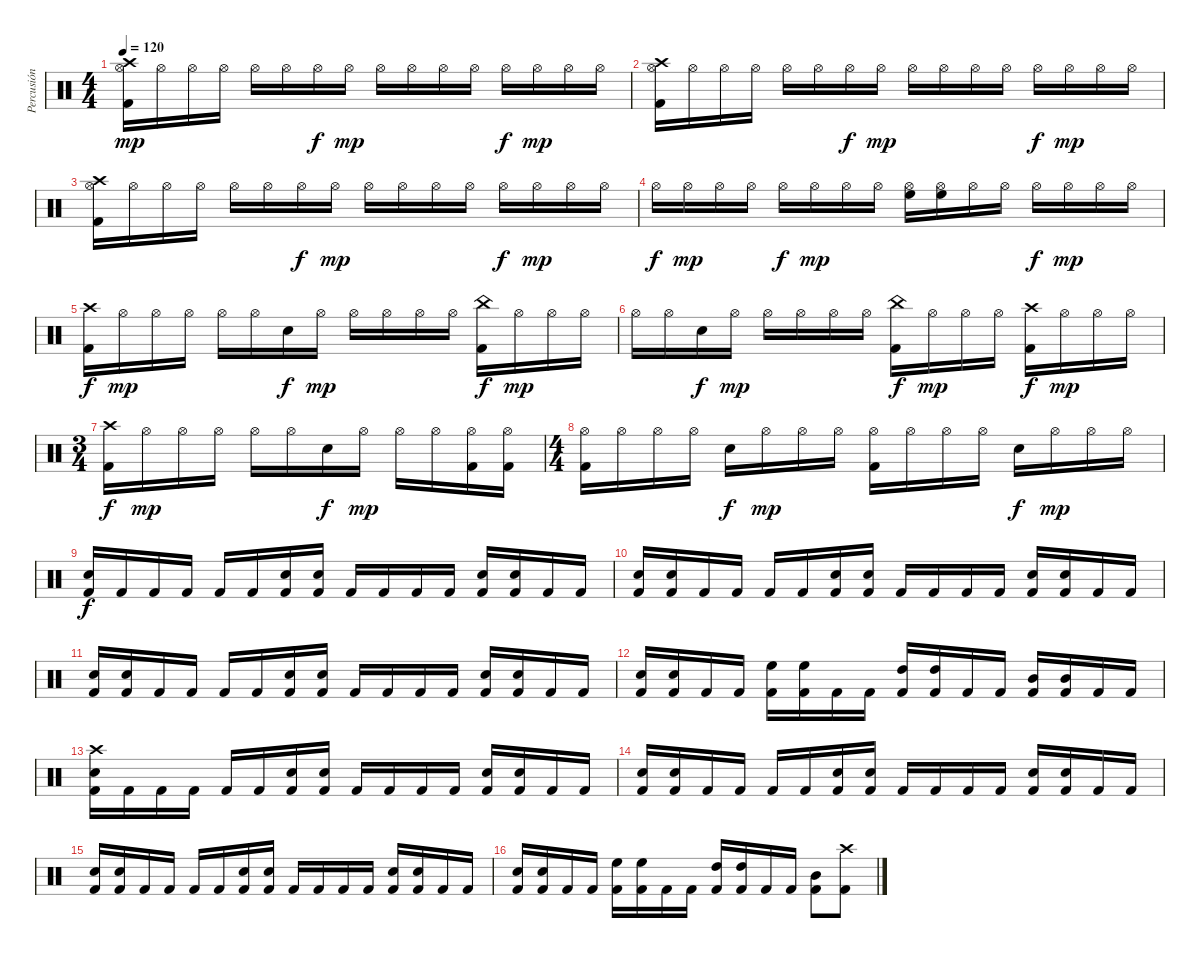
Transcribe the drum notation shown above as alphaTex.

\track ("Percusión" "Percusión") {instrument percussion}
\staff {score}
\articulation defaults
\ts (4 4)
\tempo 120
\clef neutral
\ks c
("Crash high (hit)" "Kick (hit) 2" "Hi-Hat (open)").16{dy mp} "Hi-Hat (open)".16 "Hi-Hat (open)".16 "Hi-Hat (open)".16 "Hi-Hat (open)".16 "Hi-Hat (open)".16 "Hi-Hat (open)".16{dy f} "Hi-Hat (open)".16{dy mp} "Hi-Hat (open)".16 "Hi-Hat (open)".16 "Hi-Hat (open)".16 "Hi-Hat (open)".16 "Hi-Hat (open)".16{dy f} "Hi-Hat (open)".16{dy mp} "Hi-Hat (open)".16 "Hi-Hat (open)".16 |
("Crash high (hit)" "Kick (hit) 2" "Hi-Hat (open)").16 "Hi-Hat (open)".16 "Hi-Hat (open)".16 "Hi-Hat (open)".16 "Hi-Hat (open)".16 "Hi-Hat (open)".16 "Hi-Hat (open)".16{dy f} "Hi-Hat (open)".16{dy mp} "Hi-Hat (open)".16 "Hi-Hat (open)".16 "Hi-Hat (open)".16 "Hi-Hat (open)".16 "Hi-Hat (open)".16{dy f} "Hi-Hat (open)".16{dy mp} "Hi-Hat (open)".16 "Hi-Hat (open)".16 |
("Hi-Hat (open)" "Crash high (hit)" "Kick (hit) 2").16 "Hi-Hat (open)".16 "Hi-Hat (open)".16 "Hi-Hat (open)".16 "Hi-Hat (open)".16 "Hi-Hat (open)".16 "Hi-Hat (open)".16{dy f} "Hi-Hat (open)".16{dy mp} "Hi-Hat (open)".16 "Hi-Hat (open)".16 "Hi-Hat (open)".16 "Hi-Hat (open)".16 "Hi-Hat (open)".16{dy f} "Hi-Hat (open)".16{dy mp} "Hi-Hat (open)".16 "Hi-Hat (open)".16 |
"Hi-Hat (open)".16{dy f} "Hi-Hat (open)".16{dy mp} "Hi-Hat (open)".16 "Hi-Hat (open)".16 "Hi-Hat (open)".16{dy f} "Hi-Hat (open)".16{dy mp} "Hi-Hat (open)".16 "Hi-Hat (open)".16 ("Hi-Hat (open)" "High Floor Tom (hit)").16 ("Hi-Hat (open)" "High Floor Tom (hit)").16 "Hi-Hat (open)".16 "Hi-Hat (open)".16 "Hi-Hat (open)".16{dy f} "Hi-Hat (open)".16{dy mp} "Hi-Hat (open)".16 "Hi-Hat (open)".16 |
("Crash high (hit)" "Kick (hit) 2").16{dy f} "Hi-Hat (open)".16{dy mp} "Hi-Hat (open)".16 "Hi-Hat (open)".16 "Hi-Hat (open)".16 "Hi-Hat (open)".16 "Electric Snare (hit)".16{dy f} "Hi-Hat (open)".16{dy mp} "Hi-Hat (open)".16 "Hi-Hat (open)".16 "Hi-Hat (open)".16 "Hi-Hat (open)".16 ("China (hit)" "Kick (hit) 2").16{dy f} "Hi-Hat (open)".16{dy mp} "Hi-Hat (open)".16 "Hi-Hat (open)".16 |
"Hi-Hat (open)".16 "Hi-Hat (open)".16 "Electric Snare (hit)".16{dy f} "Hi-Hat (open)".16{dy mp} "Hi-Hat (open)".16 "Hi-Hat (open)".16 "Hi-Hat (open)".16 "Hi-Hat (open)".16 ("China (hit)" "Kick (hit) 2").16{dy f} "Hi-Hat (open)".16{dy mp} "Hi-Hat (open)".16 "Hi-Hat (open)".16 ("Crash high (hit)" "Kick (hit) 2").16{dy f} "Hi-Hat (open)".16{dy mp} "Hi-Hat (open)".16 "Hi-Hat (open)".16 |
\ts (3 4)
("Kick (hit) 2" "Crash high (hit)").16{dy f} "Hi-Hat (open)".16{dy mp} "Hi-Hat (open)".16 "Hi-Hat (open)".16 "Hi-Hat (open)".16 "Hi-Hat (open)".16 "Electric Snare (hit)".16{dy f} "Hi-Hat (open)".16{dy mp} "Hi-Hat (open)".16 "Hi-Hat (open)".16 ("Kick (hit) 2" "Hi-Hat (open)").16 ("Kick (hit) 2" "Hi-Hat (open)").16 |
\ts (4 4)
("Kick (hit) 2" "Hi-Hat (open)").16 "Hi-Hat (open)".16 "Hi-Hat (open)".16 "Hi-Hat (open)".16 "Electric Snare (hit)".16{dy f} "Hi-Hat (open)".16{dy mp} "Hi-Hat (open)".16 "Hi-Hat (open)".16 ("Kick (hit) 2" "Hi-Hat (open)").16 "Hi-Hat (open)".16 "Hi-Hat (open)".16 "Hi-Hat (open)".16 "Electric Snare (hit)".16{dy f} "Hi-Hat (open)".16{dy mp} "Hi-Hat (open)".16 "Hi-Hat (open)".16 |
("Electric Snare (hit)" "Kick (hit) 2").16{dy f} "Kick (hit) 2".16 "Kick (hit) 2".16 "Kick (hit) 2".16 "Kick (hit) 2".16 "Kick (hit) 2".16 ("Kick (hit) 2" "Electric Snare (hit)").16 ("Kick (hit) 2" "Electric Snare (hit)").16 "Kick (hit) 2".16 "Kick (hit) 2".16 "Kick (hit) 2".16 "Kick (hit) 2".16 ("Kick (hit) 2" "Electric Snare (hit)").16 ("Kick (hit) 2" "Electric Snare (hit)").16 "Kick (hit) 2".16 "Kick (hit) 2".16 |
("Kick (hit) 2" "Electric Snare (hit)").16 ("Kick (hit) 2" "Electric Snare (hit)").16 "Kick (hit) 2".16 "Kick (hit) 2".16 "Kick (hit) 2".16 "Kick (hit) 2".16 ("Kick (hit) 2" "Electric Snare (hit)").16 ("Kick (hit) 2" "Electric Snare (hit)").16 "Kick (hit) 2".16 "Kick (hit) 2".16 "Kick (hit) 2".16 "Kick (hit) 2".16 ("Kick (hit) 2" "Electric Snare (hit)").16 ("Kick (hit) 2" "Electric Snare (hit)").16 "Kick (hit) 2".16 "Kick (hit) 2".16 |
("Kick (hit) 2" "Electric Snare (hit)").16 ("Kick (hit) 2" "Electric Snare (hit)").16 "Kick (hit) 2".16 "Kick (hit) 2".16 "Kick (hit) 2".16 "Kick (hit) 2".16 ("Kick (hit) 2" "Electric Snare (hit)").16 ("Kick (hit) 2" "Electric Snare (hit)").16 "Kick (hit) 2".16 "Kick (hit) 2".16 "Kick (hit) 2".16 "Kick (hit) 2".16 ("Kick (hit) 2" "Electric Snare (hit)").16 ("Kick (hit) 2" "Electric Snare (hit)").16 "Kick (hit) 2".16 "Kick (hit) 2".16 |
("Kick (hit) 2" "Electric Snare (hit)").16 ("Kick (hit) 2" "Electric Snare (hit)").16 "Kick (hit) 2".16 "Kick (hit) 2".16 ("Kick (hit) 2" "High Floor Tom (hit)").16 ("Kick (hit) 2" "High Floor Tom (hit)").16 "Kick (hit) 2".16 "Kick (hit) 2".16 ("Kick (hit) 2" "High Tom (hit)").16 ("Kick (hit) 2" "High Tom (hit)").16 "Kick (hit) 2".16 "Kick (hit) 2".16 ("Kick (hit) 2" "Mid Tom (hit)").16 ("Kick (hit) 2" "Mid Tom (hit)").16 "Kick (hit) 2".16 "Kick (hit) 2".16 |
("Kick (hit) 2" "Crash high (hit)" "Electric Snare (hit)").16 "Kick (hit) 2".16 "Kick (hit) 2".16 "Kick (hit) 2".16 "Kick (hit) 2".16 "Kick (hit) 2".16 ("Kick (hit) 2" "Electric Snare (hit)").16 ("Kick (hit) 2" "Electric Snare (hit)").16 "Kick (hit) 2".16 "Kick (hit) 2".16 "Kick (hit) 2".16 "Kick (hit) 2".16 ("Kick (hit) 2" "Electric Snare (hit)").16 ("Kick (hit) 2" "Electric Snare (hit)").16 "Kick (hit) 2".16 "Kick (hit) 2".16 |
("Kick (hit) 2" "Electric Snare (hit)").16 ("Kick (hit) 2" "Electric Snare (hit)").16 "Kick (hit) 2".16 "Kick (hit) 2".16 "Kick (hit) 2".16 "Kick (hit) 2".16 ("Kick (hit) 2" "Electric Snare (hit)").16 ("Kick (hit) 2" "Electric Snare (hit)").16 "Kick (hit) 2".16 "Kick (hit) 2".16 "Kick (hit) 2".16 "Kick (hit) 2".16 ("Kick (hit) 2" "Electric Snare (hit)").16 ("Kick (hit) 2" "Electric Snare (hit)").16 "Kick (hit) 2".16 "Kick (hit) 2".16 |
("Kick (hit) 2" "Electric Snare (hit)").16 ("Kick (hit) 2" "Electric Snare (hit)").16 "Kick (hit) 2".16 "Kick (hit) 2".16 "Kick (hit) 2".16 "Kick (hit) 2".16 ("Kick (hit) 2" "Electric Snare (hit)").16 ("Kick (hit) 2" "Electric Snare (hit)").16 "Kick (hit) 2".16 "Kick (hit) 2".16 "Kick (hit) 2".16 "Kick (hit) 2".16 ("Kick (hit) 2" "Electric Snare (hit)").16 ("Kick (hit) 2" "Electric Snare (hit)").16 "Kick (hit) 2".16 "Kick (hit) 2".16 |
("Kick (hit) 2" "Electric Snare (hit)").16 ("Kick (hit) 2" "Electric Snare (hit)").16 "Kick (hit) 2".16 "Kick (hit) 2".16 ("Kick (hit) 2" "High Floor Tom (hit)").16 ("Kick (hit) 2" "High Floor Tom (hit)").16 "Kick (hit) 2".16 "Kick (hit) 2".16 ("Kick (hit) 2" "High Tom (hit)").16 ("Kick (hit) 2" "High Tom (hit)").16 "Kick (hit) 2".16 "Kick (hit) 2".16 ("Kick (hit) 2" "Mid Tom (hit)").8 ("Kick (hit) 2" "Crash high (hit)").8
